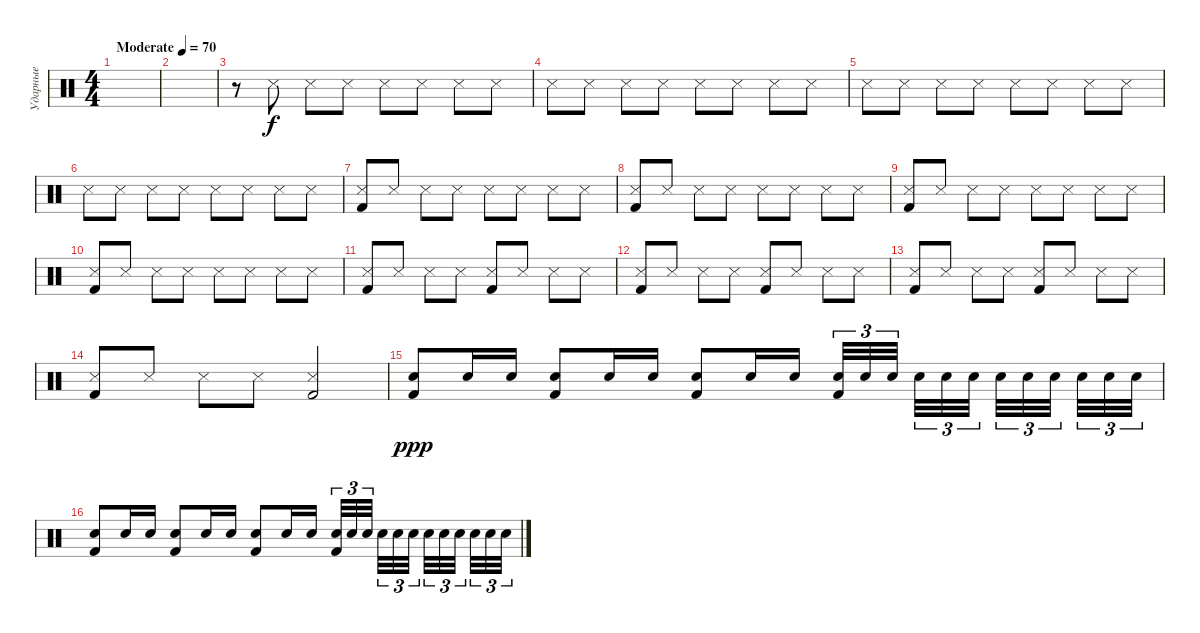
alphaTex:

\track ("Ударные" "Ударные") {instrument percussion}
\staff {score}
\articulation defaults
\ts (4 4)
\tempo (70 "Moderate")
\clef neutral
\ks c
|
|
r.8 "Snare (side stick) 3".8 "Snare (side stick) 3".8 "Snare (side stick) 3".8 "Snare (side stick) 3".8 "Snare (side stick) 3".8 "Snare (side stick) 3".8 "Snare (side stick) 3".8 |
"Snare (side stick) 3".8 "Snare (side stick) 3".8 "Snare (side stick) 3".8 "Snare (side stick) 3".8 "Snare (side stick) 3".8 "Snare (side stick) 3".8 "Snare (side stick) 3".8 "Snare (side stick) 3".8 |
"Snare (side stick) 3".8 "Snare (side stick) 3".8 "Snare (side stick) 3".8 "Snare (side stick) 3".8 "Snare (side stick) 3".8 "Snare (side stick) 3".8 "Snare (side stick) 3".8 "Snare (side stick) 3".8 |
"Snare (side stick) 3".8 "Snare (side stick) 3".8 "Snare (side stick) 3".8 "Snare (side stick) 3".8 "Snare (side stick) 3".8 "Snare (side stick) 3".8 "Snare (side stick) 3".8 "Snare (side stick) 3".8 |
("Snare (side stick) 3" "Kick (hit) 2").8 "Snare (side stick) 3".8 "Snare (side stick) 3".8 "Snare (side stick) 3".8 "Snare (side stick) 3".8 "Snare (side stick) 3".8 "Snare (side stick) 3".8 "Snare (side stick) 3".8 |
("Snare (side stick) 3" "Kick (hit) 2").8 "Snare (side stick) 3".8 "Snare (side stick) 3".8 "Snare (side stick) 3".8 "Snare (side stick) 3".8 "Snare (side stick) 3".8 "Snare (side stick) 3".8 "Snare (side stick) 3".8 |
("Snare (side stick) 3" "Kick (hit) 2").8 "Snare (side stick) 3".8 "Snare (side stick) 3".8 "Snare (side stick) 3".8 "Snare (side stick) 3".8 "Snare (side stick) 3".8 "Snare (side stick) 3".8 "Snare (side stick) 3".8 |
("Snare (side stick) 3" "Kick (hit) 2").8 "Snare (side stick) 3".8 "Snare (side stick) 3".8 "Snare (side stick) 3".8 "Snare (side stick) 3".8 "Snare (side stick) 3".8 "Snare (side stick) 3".8 "Snare (side stick) 3".8 |
("Snare (side stick) 3" "Kick (hit) 2").8 "Snare (side stick) 3".8 "Snare (side stick) 3".8 "Snare (side stick) 3".8 ("Snare (side stick) 3" "Kick (hit) 2").8 "Snare (side stick) 3".8 "Snare (side stick) 3".8 "Snare (side stick) 3".8 |
("Snare (side stick) 3" "Kick (hit) 2").8 "Snare (side stick) 3".8 "Snare (side stick) 3".8 "Snare (side stick) 3".8 ("Snare (side stick) 3" "Kick (hit) 2").8 "Snare (side stick) 3".8 "Snare (side stick) 3".8 "Snare (side stick) 3".8 |
("Snare (side stick) 3" "Kick (hit) 2").8 "Snare (side stick) 3".8 "Snare (side stick) 3".8 "Snare (side stick) 3".8 ("Snare (side stick) 3" "Kick (hit) 2").8 "Snare (side stick) 3".8 "Snare (side stick) 3".8 "Snare (side stick) 3".8 |
("Snare (side stick) 3" "Kick (hit) 2").8 "Snare (side stick) 3".8 "Snare (side stick) 3".8 "Snare (side stick) 3".8 ("Snare (side stick) 3" "Kick (hit) 2").2 |
("Snare (hit) 2" "Kick (hit) 2").8{dy ppp} "Snare (hit) 2".16 "Snare (hit) 2".16 ("Snare (hit) 2" "Kick (hit) 2").8 "Snare (hit) 2".16 "Snare (hit) 2".16 ("Snare (hit) 2" "Kick (hit) 2").8 "Snare (hit) 2".16 "Snare (hit) 2".16 ("Snare (hit) 2" "Kick (hit) 2").32{tu (3 2)} "Snare (hit) 2".32{tu (3 2)} "Snare (hit) 2".32{tu (3 2) beam splitsecondary} "Snare (hit) 2".32{tu (3 2)} "Snare (hit) 2".32{tu (3 2)} "Snare (hit) 2".32{tu (3 2) beam splitsecondary} "Snare (hit) 2".32{tu (3 2)} "Snare (hit) 2".32{tu (3 2)} "Snare (hit) 2".32{tu (3 2) beam splitsecondary} "Snare (hit) 2".32{tu (3 2)} "Snare (hit) 2".32{tu (3 2)} "Snare (hit) 2".32{tu (3 2)} |
("Snare (hit) 2" "Kick (hit) 2").8 "Snare (hit) 2".16 "Snare (hit) 2".16 ("Snare (hit) 2" "Kick (hit) 2").8 "Snare (hit) 2".16 "Snare (hit) 2".16 ("Snare (hit) 2" "Kick (hit) 2").8 "Snare (hit) 2".16 "Snare (hit) 2".16 ("Snare (hit) 2" "Kick (hit) 2").32{tu (3 2)} "Snare (hit) 2".32{tu (3 2)} "Snare (hit) 2".32{tu (3 2) beam splitsecondary} "Snare (hit) 2".32{tu (3 2)} "Snare (hit) 2".32{tu (3 2)} "Snare (hit) 2".32{tu (3 2) beam splitsecondary} "Snare (hit) 2".32{tu (3 2)} "Snare (hit) 2".32{tu (3 2)} "Snare (hit) 2".32{tu (3 2) beam splitsecondary} "Snare (hit) 2".32{tu (3 2)} "Snare (hit) 2".32{tu (3 2)} "Snare (hit) 2".32{tu (3 2)}
